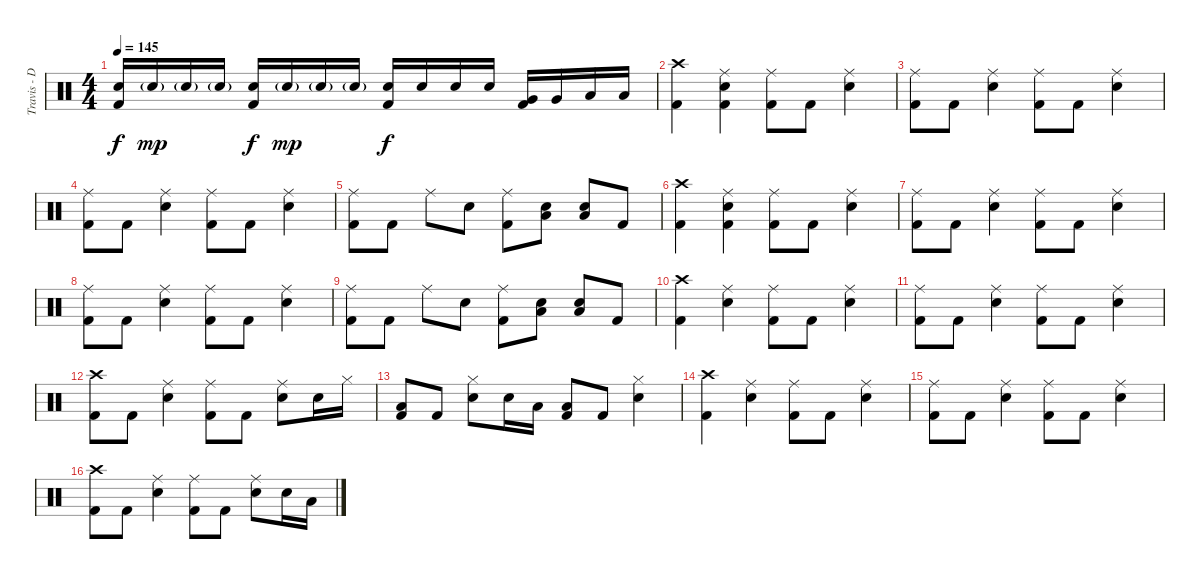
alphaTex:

\track ("Travis - Drums" "Travis - D") {instrument percussion}
\staff {score}
\articulation defaults
\ts (4 4)
\tempo 145
\clef neutral
\ks c
("Snare (hit) 2" "Kick (hit) 2").16{dy f} "Snare (hit) 2"{g}.16{dy mp} "Snare (hit) 2"{g}.16 "Snare (hit) 2"{g}.16 ("Snare (hit) 2" "Kick (hit) 2").16{dy f} "Snare (hit) 2"{g}.16{dy mp} "Snare (hit) 2"{g}.16 "Snare (hit) 2"{g}.16 ("Snare (hit) 2" "Kick (hit) 2").16{dy f} "Snare (hit) 2".16 "Snare (hit) 2".16 "Snare (hit) 2".16 ("Very Low Tom (hit)" "Kick (hit) 2").16 "Very Low Tom (hit)".16 "Low Floor Tom (hit)".16 "Low Floor Tom (hit)".16 |
("Crash high (hit)" "Kick (hit) 2").4 ("Ride (middle)" "Snare (hit) 2" "Kick (hit) 2").4 ("Ride (middle)" "Kick (hit) 2").8 "Kick (hit) 2".8 ("Ride (middle)" "Snare (hit) 2").4 |
("Ride (middle)" "Kick (hit) 2").8 "Kick (hit) 2".8 ("Ride (middle)" "Snare (hit) 2").4 ("Ride (middle)" "Kick (hit) 2").8 "Kick (hit) 2".8 ("Ride (middle)" "Snare (hit) 2").4 |
("Ride (middle)" "Kick (hit) 2").8 "Kick (hit) 2".8 ("Ride (middle)" "Snare (hit) 2").4 ("Ride (middle)" "Kick (hit) 2").8 "Kick (hit) 2".8 ("Ride (middle)" "Snare (hit) 2").4 |
("Ride (middle)" "Kick (hit) 2").8 "Kick (hit) 2".8 "Ride (middle)".8 "Snare (hit) 2".8 ("Ride (middle)" "Kick (hit) 2").8 ("Snare (hit) 2" "Low Floor Tom (hit)").8 ("Snare (hit) 2" "Low Floor Tom (hit)").8 "Kick (hit) 2".8 |
("Crash high (hit)" "Kick (hit) 2").4 ("Ride (middle)" "Snare (hit) 2" "Kick (hit) 2").4 ("Ride (middle)" "Kick (hit) 2").8 "Kick (hit) 2".8 ("Ride (middle)" "Snare (hit) 2").4 |
("Ride (middle)" "Kick (hit) 2").8 "Kick (hit) 2".8 ("Ride (middle)" "Snare (hit) 2").4 ("Ride (middle)" "Kick (hit) 2").8 "Kick (hit) 2".8 ("Ride (middle)" "Snare (hit) 2").4 |
("Ride (middle)" "Kick (hit) 2").8 "Kick (hit) 2".8 ("Ride (middle)" "Snare (hit) 2").4 ("Ride (middle)" "Kick (hit) 2").8 "Kick (hit) 2".8 ("Ride (middle)" "Snare (hit) 2").4 |
("Ride (middle)" "Kick (hit) 2").8 "Kick (hit) 2".8 "Ride (middle)".8 "Snare (hit) 2".8 ("Ride (middle)" "Kick (hit) 2").8 ("Snare (hit) 2" "Low Floor Tom (hit)").8 ("Snare (hit) 2" "Low Floor Tom (hit)").8 "Kick (hit) 2".8 |
("Crash high (hit)" "Kick (hit) 2").4 ("Ride (middle)" "Snare (hit) 2").4 ("Ride (middle)" "Kick (hit) 2").8 "Kick (hit) 2".8 ("Ride (middle)" "Snare (hit) 2").4 |
("Ride (middle)" "Kick (hit) 2").8 "Kick (hit) 2".8 ("Ride (middle)" "Snare (hit) 2").4 ("Ride (middle)" "Kick (hit) 2").8 "Kick (hit) 2".8 ("Ride (middle)" "Snare (hit) 2").4 |
("Crash high (hit)" "Kick (hit) 2").8 "Kick (hit) 2".8 ("Ride (middle)" "Snare (hit) 2").4 ("Ride (middle)" "Kick (hit) 2").8 "Kick (hit) 2".8 ("Ride (middle)" "Snare (hit) 2").8 "Snare (hit) 2".16 "Hi-Hat (closed)".16 |
("Low Floor Tom (hit)" "Kick (hit) 2").8 "Kick (hit) 2".8 ("Hi-Hat (closed)" "Snare (hit) 2").8 "Snare (hit) 2".16 "Low Tom (hit)".16 ("Low Floor Tom (hit)" "Kick (hit) 2").8 "Kick (hit) 2".8 ("Hi-Hat (closed)" "Snare (hit) 2").4 |
("Crash high (hit)" "Kick (hit) 2").4 ("Ride (middle)" "Snare (hit) 2").4 ("Ride (middle)" "Kick (hit) 2").8 "Kick (hit) 2".8 ("Ride (middle)" "Snare (hit) 2").4 |
("Ride (middle)" "Kick (hit) 2").8 "Kick (hit) 2".8 ("Ride (middle)" "Snare (hit) 2").4 ("Ride (middle)" "Kick (hit) 2").8 "Kick (hit) 2".8 ("Ride (middle)" "Snare (hit) 2").4 |
("Crash high (hit)" "Kick (hit) 2").8 "Kick (hit) 2".8 ("Ride (middle)" "Snare (hit) 2").4 ("Ride (middle)" "Kick (hit) 2").8 "Kick (hit) 2".8 ("Ride (middle)" "Snare (hit) 2").8 "Snare (hit) 2".16 "Low Tom (hit)".16
